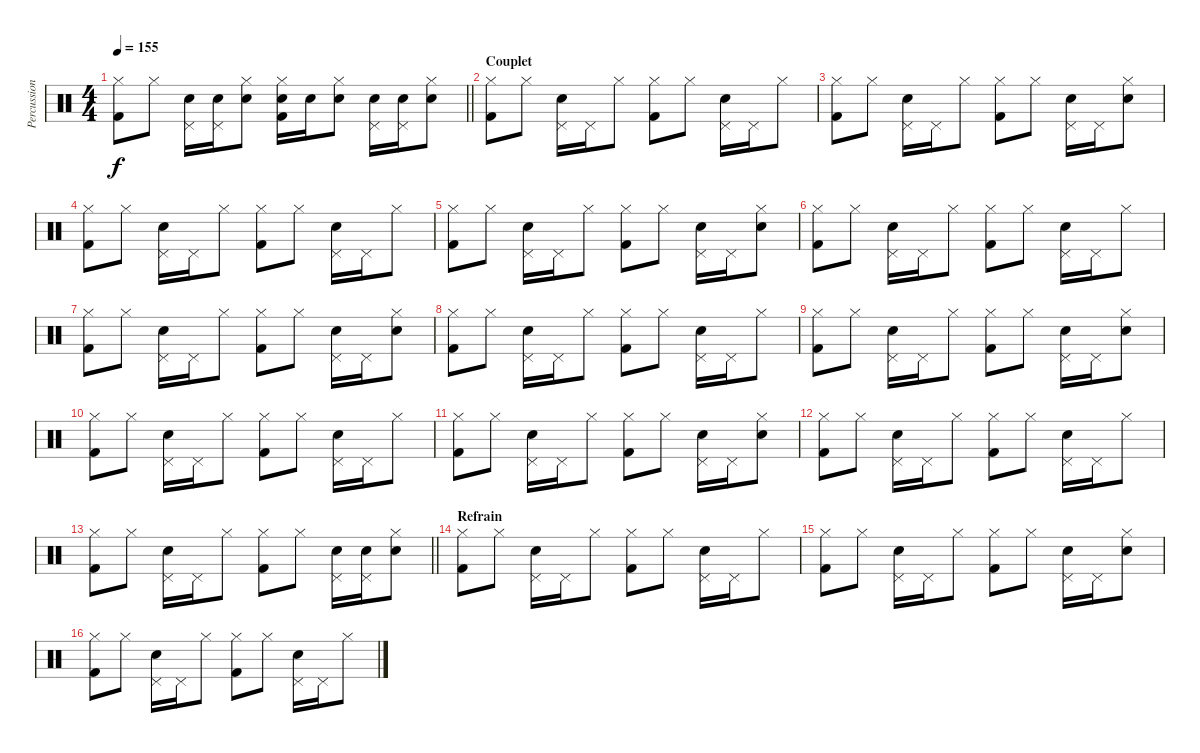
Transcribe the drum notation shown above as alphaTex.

\track ("Percussions" "Percussion") {instrument percussion}
\staff {score}
\articulation defaults
\ts (4 4)
\tempo 155
\clef neutral
\barLineRight lightlight
\ks c
("Kick (hit) 2" "Hi-Hat (closed)").8{dy f} "Hi-Hat (closed)".8 ("Electric Snare (hit)" "Pedal Hi-Hat (hit)").16 ("Electric Snare (hit)" "Pedal Hi-Hat (hit)").16 ("Electric Snare (hit)" "Hi-Hat (closed)").8 ("Electric Snare (hit)" "Kick (hit) 2" "Hi-Hat (closed)").16 "Electric Snare (hit)".16 ("Electric Snare (hit)" "Hi-Hat (closed)").8 ("Electric Snare (hit)" "Pedal Hi-Hat (hit)").16 ("Electric Snare (hit)" "Pedal Hi-Hat (hit)").16 ("Electric Snare (hit)" "Hi-Hat (closed)").8 |
\section ("" "Couplet")
("Kick (hit) 2" "Hi-Hat (closed)").8 "Hi-Hat (closed)".8 ("Electric Snare (hit)" "Pedal Hi-Hat (hit)").16 "Pedal Hi-Hat (hit)".16 "Hi-Hat (closed)".8 ("Kick (hit) 2" "Hi-Hat (closed)").8 "Hi-Hat (closed)".8 ("Electric Snare (hit)" "Pedal Hi-Hat (hit)").16 "Pedal Hi-Hat (hit)".16 "Hi-Hat (closed)".8 |
("Kick (hit) 2" "Hi-Hat (closed)").8 "Hi-Hat (closed)".8 ("Electric Snare (hit)" "Pedal Hi-Hat (hit)").16 "Pedal Hi-Hat (hit)".16 "Hi-Hat (closed)".8 ("Kick (hit) 2" "Hi-Hat (closed)").8 "Hi-Hat (closed)".8 ("Electric Snare (hit)" "Pedal Hi-Hat (hit)").16 "Pedal Hi-Hat (hit)".16 ("Electric Snare (hit)" "Hi-Hat (closed)").8 |
("Kick (hit) 2" "Hi-Hat (closed)").8 "Hi-Hat (closed)".8 ("Electric Snare (hit)" "Pedal Hi-Hat (hit)").16 "Pedal Hi-Hat (hit)".16 "Hi-Hat (closed)".8 ("Kick (hit) 2" "Hi-Hat (closed)").8 "Hi-Hat (closed)".8 ("Electric Snare (hit)" "Pedal Hi-Hat (hit)").16 "Pedal Hi-Hat (hit)".16 "Hi-Hat (closed)".8 |
("Kick (hit) 2" "Hi-Hat (closed)").8 "Hi-Hat (closed)".8 ("Electric Snare (hit)" "Pedal Hi-Hat (hit)").16 "Pedal Hi-Hat (hit)".16 "Hi-Hat (closed)".8 ("Kick (hit) 2" "Hi-Hat (closed)").8 "Hi-Hat (closed)".8 ("Electric Snare (hit)" "Pedal Hi-Hat (hit)").16 "Pedal Hi-Hat (hit)".16 ("Electric Snare (hit)" "Hi-Hat (closed)").8 |
("Kick (hit) 2" "Hi-Hat (closed)").8 "Hi-Hat (closed)".8 ("Electric Snare (hit)" "Pedal Hi-Hat (hit)").16 "Pedal Hi-Hat (hit)".16 "Hi-Hat (closed)".8 ("Kick (hit) 2" "Hi-Hat (closed)").8 "Hi-Hat (closed)".8 ("Electric Snare (hit)" "Pedal Hi-Hat (hit)").16 "Pedal Hi-Hat (hit)".16 "Hi-Hat (closed)".8 |
("Kick (hit) 2" "Hi-Hat (closed)").8 "Hi-Hat (closed)".8 ("Electric Snare (hit)" "Pedal Hi-Hat (hit)").16 "Pedal Hi-Hat (hit)".16 "Hi-Hat (closed)".8 ("Kick (hit) 2" "Hi-Hat (closed)").8 "Hi-Hat (closed)".8 ("Electric Snare (hit)" "Pedal Hi-Hat (hit)").16 "Pedal Hi-Hat (hit)".16 ("Electric Snare (hit)" "Hi-Hat (closed)").8 |
("Kick (hit) 2" "Hi-Hat (closed)").8 "Hi-Hat (closed)".8 ("Electric Snare (hit)" "Pedal Hi-Hat (hit)").16 "Pedal Hi-Hat (hit)".16 "Hi-Hat (closed)".8 ("Kick (hit) 2" "Hi-Hat (closed)").8 "Hi-Hat (closed)".8 ("Electric Snare (hit)" "Pedal Hi-Hat (hit)").16 "Pedal Hi-Hat (hit)".16 "Hi-Hat (closed)".8 |
("Kick (hit) 2" "Hi-Hat (closed)").8 "Hi-Hat (closed)".8 ("Electric Snare (hit)" "Pedal Hi-Hat (hit)").16 "Pedal Hi-Hat (hit)".16 "Hi-Hat (closed)".8 ("Kick (hit) 2" "Hi-Hat (closed)").8 "Hi-Hat (closed)".8 ("Electric Snare (hit)" "Pedal Hi-Hat (hit)").16 "Pedal Hi-Hat (hit)".16 ("Electric Snare (hit)" "Hi-Hat (closed)").8 |
("Kick (hit) 2" "Hi-Hat (closed)").8 "Hi-Hat (closed)".8 ("Electric Snare (hit)" "Pedal Hi-Hat (hit)").16 "Pedal Hi-Hat (hit)".16 "Hi-Hat (closed)".8 ("Kick (hit) 2" "Hi-Hat (closed)").8 "Hi-Hat (closed)".8 ("Electric Snare (hit)" "Pedal Hi-Hat (hit)").16 "Pedal Hi-Hat (hit)".16 "Hi-Hat (closed)".8 |
("Kick (hit) 2" "Hi-Hat (closed)").8 "Hi-Hat (closed)".8 ("Electric Snare (hit)" "Pedal Hi-Hat (hit)").16 "Pedal Hi-Hat (hit)".16 "Hi-Hat (closed)".8 ("Kick (hit) 2" "Hi-Hat (closed)").8 "Hi-Hat (closed)".8 ("Electric Snare (hit)" "Pedal Hi-Hat (hit)").16 "Pedal Hi-Hat (hit)".16 ("Electric Snare (hit)" "Hi-Hat (closed)").8 |
("Kick (hit) 2" "Hi-Hat (closed)").8 "Hi-Hat (closed)".8 ("Electric Snare (hit)" "Pedal Hi-Hat (hit)").16 "Pedal Hi-Hat (hit)".16 "Hi-Hat (closed)".8 ("Kick (hit) 2" "Hi-Hat (closed)").8 "Hi-Hat (closed)".8 ("Electric Snare (hit)" "Pedal Hi-Hat (hit)").16 "Pedal Hi-Hat (hit)".16 "Hi-Hat (closed)".8 |
\barLineRight lightlight
("Kick (hit) 2" "Hi-Hat (closed)").8 "Hi-Hat (closed)".8 ("Electric Snare (hit)" "Pedal Hi-Hat (hit)").16 "Pedal Hi-Hat (hit)".16 "Hi-Hat (closed)".8 ("Kick (hit) 2" "Hi-Hat (closed)").8 "Hi-Hat (closed)".8 ("Electric Snare (hit)" "Pedal Hi-Hat (hit)").16 ("Electric Snare (hit)" "Pedal Hi-Hat (hit)").16 ("Electric Snare (hit)" "Hi-Hat (closed)").8 |
\section ("" "Refrain")
("Kick (hit) 2" "Hi-Hat (closed)").8 "Hi-Hat (closed)".8 ("Electric Snare (hit)" "Pedal Hi-Hat (hit)").16 "Pedal Hi-Hat (hit)".16 "Hi-Hat (closed)".8 ("Kick (hit) 2" "Hi-Hat (closed)").8 "Hi-Hat (closed)".8 ("Electric Snare (hit)" "Pedal Hi-Hat (hit)").16 "Pedal Hi-Hat (hit)".16 "Hi-Hat (closed)".8 |
("Kick (hit) 2" "Hi-Hat (closed)").8 "Hi-Hat (closed)".8 ("Electric Snare (hit)" "Pedal Hi-Hat (hit)").16 "Pedal Hi-Hat (hit)".16 "Hi-Hat (closed)".8 ("Kick (hit) 2" "Hi-Hat (closed)").8 "Hi-Hat (closed)".8 ("Electric Snare (hit)" "Pedal Hi-Hat (hit)").16 "Pedal Hi-Hat (hit)".16 ("Electric Snare (hit)" "Hi-Hat (closed)").8 |
("Kick (hit) 2" "Hi-Hat (closed)").8 "Hi-Hat (closed)".8 ("Electric Snare (hit)" "Pedal Hi-Hat (hit)").16 "Pedal Hi-Hat (hit)".16 "Hi-Hat (closed)".8 ("Kick (hit) 2" "Hi-Hat (closed)").8 "Hi-Hat (closed)".8 ("Electric Snare (hit)" "Pedal Hi-Hat (hit)").16 "Pedal Hi-Hat (hit)".16 "Hi-Hat (closed)".8
